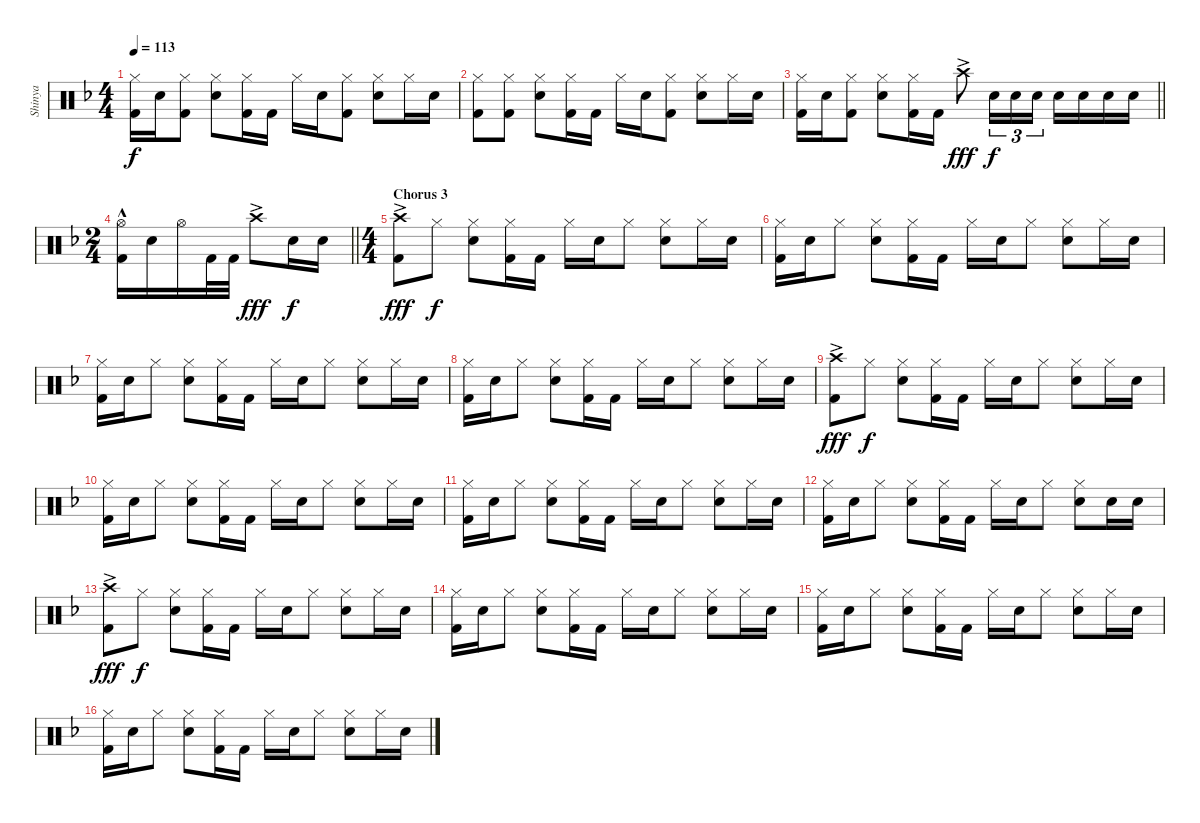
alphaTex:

\track ("Shinya" "Shinya") {instrument percussion}
\staff {score}
\articulation defaults
\ts (4 4)
\tempo 113
\clef neutral
\ks f
("Hi-Hat (closed)" "Kick (hit) 2").16{dy f} "Snare (hit) 2".16 ("Hi-Hat (closed)" "Kick (hit) 2").8 ("Hi-Hat (closed)" "Snare (hit) 2").8 ("Hi-Hat (closed)" "Kick (hit) 2").16 "Kick (hit) 2".16 "Hi-Hat (closed)".16 "Snare (hit) 2".16 ("Hi-Hat (closed)" "Kick (hit) 2").8 ("Hi-Hat (closed)" "Snare (hit) 2").8 "Hi-Hat (closed)".16 "Snare (hit) 2".16 |
("Hi-Hat (closed)" "Kick (hit) 2").8 ("Hi-Hat (closed)" "Kick (hit) 2").8 ("Hi-Hat (closed)" "Snare (hit) 2").8 ("Hi-Hat (closed)" "Kick (hit) 2").16 "Kick (hit) 2".16 "Hi-Hat (closed)".16 "Snare (hit) 2".16 ("Hi-Hat (closed)" "Kick (hit) 2").8 ("Hi-Hat (closed)" "Snare (hit) 2").8 "Hi-Hat (closed)".16 "Snare (hit) 2".16 |
\barLineRight lightlight
("Hi-Hat (closed)" "Kick (hit) 2").16 "Snare (hit) 2".16 ("Hi-Hat (closed)" "Kick (hit) 2").8 ("Hi-Hat (closed)" "Snare (hit) 2").8 ("Hi-Hat (closed)" "Kick (hit) 2").16 "Kick (hit) 2".16 "Crash high (hit)"{ac}.8{dy fff} "Snare (hit) 2".16{tu (3 2) dy f} "Snare (hit) 2".16{tu (3 2)} "Snare (hit) 2".16{tu (3 2)} "Snare (hit) 2".16 "Snare (hit) 2".16 "Snare (hit) 2".16 "Snare (hit) 2".16 |
\ts (2 4)
\barLineRight lightlight
("Hi-Hat (open)" "Kick (hit) 2"{hac}).16 "Snare (hit) 2".16 "Hi-Hat (open)".16 "Kick (hit) 2".32 "Kick (hit) 2".32 "Crash high (hit)"{ac}.8{dy fff} "Snare (hit) 2".16{dy f} "Snare (hit) 2".16 |
\ts (4 4)
\section ("" "Chorus 3")
("Crash high (hit)"{ac} "Kick (hit) 2").8{dy fff} "Hi-Hat (closed)".8{dy f} ("Hi-Hat (closed)" "Snare (hit) 2").8 ("Hi-Hat (closed)" "Kick (hit) 2").16 "Kick (hit) 2".16 "Hi-Hat (closed)".16 "Snare (hit) 2".16 "Hi-Hat (closed)".8 ("Hi-Hat (closed)" "Snare (hit) 2").8 "Hi-Hat (closed)".16 "Snare (hit) 2".16 |
("Hi-Hat (closed)" "Kick (hit) 2").16 "Snare (hit) 2".16 "Hi-Hat (closed)".8 ("Hi-Hat (closed)" "Snare (hit) 2").8 ("Hi-Hat (closed)" "Kick (hit) 2").16 "Kick (hit) 2".16 "Hi-Hat (closed)".16 "Snare (hit) 2".16 "Hi-Hat (closed)".8 ("Hi-Hat (closed)" "Snare (hit) 2").8 "Hi-Hat (closed)".16 "Snare (hit) 2".16 |
("Hi-Hat (closed)" "Kick (hit) 2").16 "Snare (hit) 2".16 "Hi-Hat (closed)".8 ("Hi-Hat (closed)" "Snare (hit) 2").8 ("Hi-Hat (closed)" "Kick (hit) 2").16 "Kick (hit) 2".16 "Hi-Hat (closed)".16 "Snare (hit) 2".16 "Hi-Hat (closed)".8 ("Hi-Hat (closed)" "Snare (hit) 2").8 "Hi-Hat (closed)".16 "Snare (hit) 2".16 |
("Hi-Hat (closed)" "Kick (hit) 2").16 "Snare (hit) 2".16 "Hi-Hat (closed)".8 ("Hi-Hat (closed)" "Snare (hit) 2").8 ("Hi-Hat (closed)" "Kick (hit) 2").16 "Kick (hit) 2".16 "Hi-Hat (closed)".16 "Snare (hit) 2".16 "Hi-Hat (closed)".8 ("Hi-Hat (closed)" "Snare (hit) 2").8 "Hi-Hat (closed)".16 "Snare (hit) 2".16 |
("Crash high (hit)"{ac} "Kick (hit) 2").8{dy fff} "Hi-Hat (closed)".8{dy f} ("Hi-Hat (closed)" "Snare (hit) 2").8 ("Hi-Hat (closed)" "Kick (hit) 2").16 "Kick (hit) 2".16 "Hi-Hat (closed)".16 "Snare (hit) 2".16 "Hi-Hat (closed)".8 ("Hi-Hat (closed)" "Snare (hit) 2").8 "Hi-Hat (closed)".16 "Snare (hit) 2".16 |
("Hi-Hat (closed)" "Kick (hit) 2").16 "Snare (hit) 2".16 "Hi-Hat (closed)".8 ("Hi-Hat (closed)" "Snare (hit) 2").8 ("Hi-Hat (closed)" "Kick (hit) 2").16 "Kick (hit) 2".16 "Hi-Hat (closed)".16 "Snare (hit) 2".16 "Hi-Hat (closed)".8 ("Hi-Hat (closed)" "Snare (hit) 2").8 "Hi-Hat (closed)".16 "Snare (hit) 2".16 |
("Hi-Hat (closed)" "Kick (hit) 2").16 "Snare (hit) 2".16 "Hi-Hat (closed)".8 ("Hi-Hat (closed)" "Snare (hit) 2").8 ("Hi-Hat (closed)" "Kick (hit) 2").16 "Kick (hit) 2".16 "Hi-Hat (closed)".16 "Snare (hit) 2".16 "Hi-Hat (closed)".8 ("Hi-Hat (closed)" "Snare (hit) 2").8 "Hi-Hat (closed)".16 "Snare (hit) 2".16 |
("Hi-Hat (closed)" "Kick (hit) 2").16 "Snare (hit) 2".16 "Hi-Hat (closed)".8 ("Hi-Hat (closed)" "Snare (hit) 2").8 ("Hi-Hat (closed)" "Kick (hit) 2").16 "Kick (hit) 2".16 "Hi-Hat (closed)".16 "Snare (hit) 2".16 "Hi-Hat (closed)".8 ("Hi-Hat (closed)" "Snare (hit) 2").8 "Snare (hit) 2".16 "Snare (hit) 2".16 |
("Crash high (hit)"{ac} "Kick (hit) 2").8{dy fff} "Hi-Hat (closed)".8{dy f} ("Hi-Hat (closed)" "Snare (hit) 2").8 ("Hi-Hat (closed)" "Kick (hit) 2").16 "Kick (hit) 2".16 "Hi-Hat (closed)".16 "Snare (hit) 2".16 "Hi-Hat (closed)".8 ("Hi-Hat (closed)" "Snare (hit) 2").8 "Hi-Hat (closed)".16 "Snare (hit) 2".16 |
("Hi-Hat (closed)" "Kick (hit) 2").16 "Snare (hit) 2".16 "Hi-Hat (closed)".8 ("Hi-Hat (closed)" "Snare (hit) 2").8 ("Hi-Hat (closed)" "Kick (hit) 2").16 "Kick (hit) 2".16 "Hi-Hat (closed)".16 "Snare (hit) 2".16 "Hi-Hat (closed)".8 ("Hi-Hat (closed)" "Snare (hit) 2").8 "Hi-Hat (closed)".16 "Snare (hit) 2".16 |
("Hi-Hat (closed)" "Kick (hit) 2").16 "Snare (hit) 2".16 "Hi-Hat (closed)".8 ("Hi-Hat (closed)" "Snare (hit) 2").8 ("Hi-Hat (closed)" "Kick (hit) 2").16 "Kick (hit) 2".16 "Hi-Hat (closed)".16 "Snare (hit) 2".16 "Hi-Hat (closed)".8 ("Hi-Hat (closed)" "Snare (hit) 2").8 "Hi-Hat (closed)".16 "Snare (hit) 2".16 |
("Hi-Hat (closed)" "Kick (hit) 2").16 "Snare (hit) 2".16 "Hi-Hat (closed)".8 ("Hi-Hat (closed)" "Snare (hit) 2").8 ("Hi-Hat (closed)" "Kick (hit) 2").16 "Kick (hit) 2".16 "Hi-Hat (closed)".16 "Snare (hit) 2".16 "Hi-Hat (closed)".8 ("Hi-Hat (closed)" "Snare (hit) 2").8 "Hi-Hat (closed)".16 "Snare (hit) 2".16
